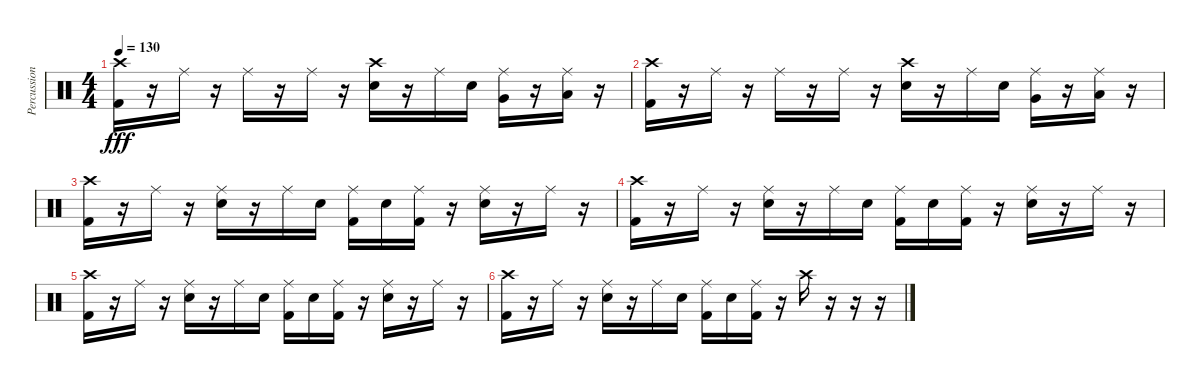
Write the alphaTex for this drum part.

\track ("Percussion" "Percussion") {instrument percussion}
\staff {score}
\articulation defaults
\ts (4 4)
\tempo 130
\clef neutral
\ks c
("Crash high (hit)" "Kick (hit) 2").16{dy fff} r.16 "Ride (middle)".16 r.16 "Ride (middle)".16 r.16 "Ride (middle)".16 r.16 ("Crash high (hit)" "Electric Snare (hit)").16 r.16 "Ride (middle)".16 "Electric Snare (hit)".16 ("Ride (middle)" "Very Low Tom (hit)").16 r.16 ("Ride (middle)" "Low Floor Tom (hit)").16 r.16 |
("Crash high (hit)" "Kick (hit) 2").16 r.16 "Ride (middle)".16 r.16 "Ride (middle)".16 r.16 "Ride (middle)".16 r.16 ("Crash high (hit)" "Electric Snare (hit)").16 r.16 "Ride (middle)".16 "Electric Snare (hit)".16 ("Ride (middle)" "Very Low Tom (hit)").16 r.16 ("Ride (middle)" "Low Floor Tom (hit)").16 r.16 |
("Crash high (hit)" "Kick (hit) 2").16 r.16 "Ride (middle)".16 r.16 ("Ride (middle)" "Electric Snare (hit)").16 r.16 "Ride (middle)".16 "Electric Snare (hit)".16 ("Ride (middle)" "Kick (hit) 2").16 "Electric Snare (hit)".16 ("Ride (middle)" "Kick (hit) 2").16 r.16 ("Ride (middle)" "Electric Snare (hit)").16 r.16 "Ride (middle)".16 r.16 |
("Crash high (hit)" "Kick (hit) 2").16 r.16 "Ride (middle)".16 r.16 ("Ride (middle)" "Electric Snare (hit)").16 r.16 "Ride (middle)".16 "Electric Snare (hit)".16 ("Ride (middle)" "Kick (hit) 2").16 "Electric Snare (hit)".16 ("Ride (middle)" "Kick (hit) 2").16 r.16 ("Ride (middle)" "Electric Snare (hit)").16 r.16 "Ride (middle)".16 r.16 |
("Crash high (hit)" "Kick (hit) 2").16 r.16 "Ride (middle)".16 r.16 ("Ride (middle)" "Electric Snare (hit)").16 r.16 "Ride (middle)".16 "Electric Snare (hit)".16 ("Ride (middle)" "Kick (hit) 2").16 "Electric Snare (hit)".16 ("Ride (middle)" "Kick (hit) 2").16 r.16 ("Ride (middle)" "Electric Snare (hit)").16 r.16 "Ride (middle)".16 r.16 |
("Crash high (hit)" "Kick (hit) 2").16 r.16 "Ride (middle)".16 r.16 ("Ride (middle)" "Electric Snare (hit)").16 r.16 "Ride (middle)".16 "Electric Snare (hit)".16 ("Ride (middle)" "Kick (hit) 2").16 "Electric Snare (hit)".16 ("Ride (middle)" "Kick (hit) 2").16 r.16 "Crash high (hit)".16 r.16 r.16 r.16
